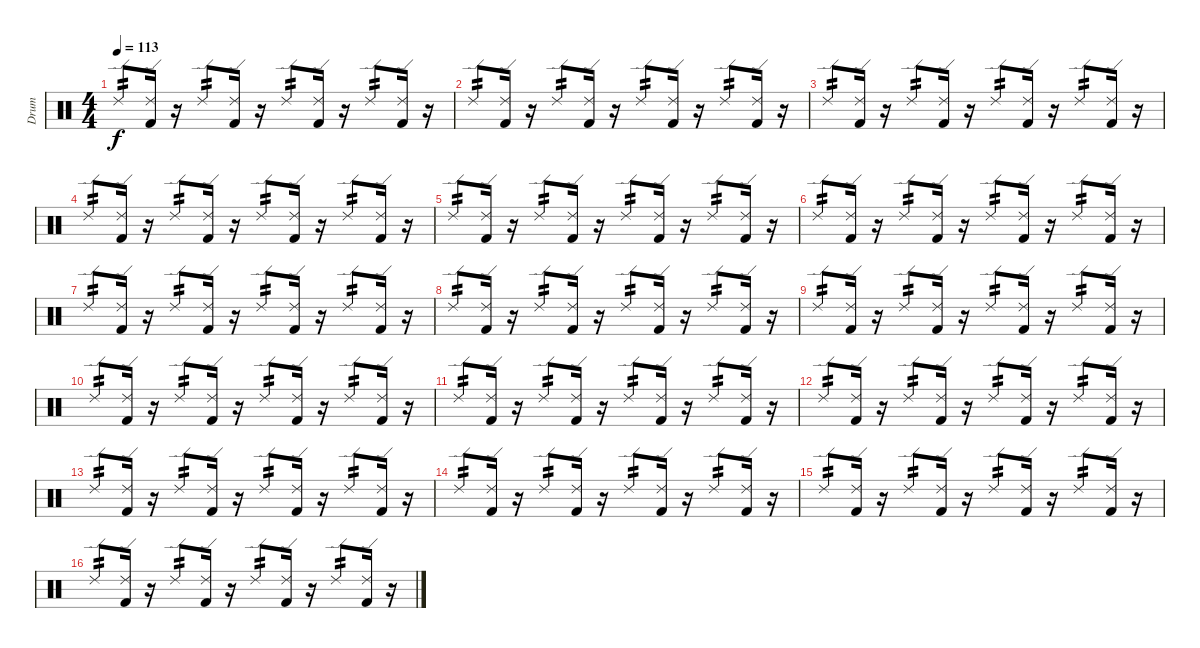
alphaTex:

\track ("Drum" "Drum") {instrument percussion}
\staff {score}
\articulation defaults
\ts (4 4)
\tempo 113
\clef neutral
\ks c "Ride (edge) 2".8{tp 2 dy f}
("Ride (edge) 2" "Kick (hit) 2").16 r.16 "Ride (edge) 2".8{tp 2} ("Ride (edge) 2" "Kick (hit) 2").16 r.16 "Ride (edge) 2".8{tp 2} ("Ride (edge) 2" "Kick (hit) 2").16 r.16 "Ride (edge) 2".8{tp 2} ("Ride (edge) 2" "Kick (hit) 2").16 r.16 |
"Ride (edge) 2".8{tp 2} ("Ride (edge) 2" "Kick (hit) 2").16 r.16 "Ride (edge) 2".8{tp 2} ("Ride (edge) 2" "Kick (hit) 2").16 r.16 "Ride (edge) 2".8{tp 2} ("Ride (edge) 2" "Kick (hit) 2").16 r.16 "Ride (edge) 2".8{tp 2} ("Ride (edge) 2" "Kick (hit) 2").16 r.16 |
"Ride (edge) 2".8{tp 2} ("Ride (edge) 2" "Kick (hit) 2").16 r.16 "Ride (edge) 2".8{tp 2} ("Ride (edge) 2" "Kick (hit) 2").16 r.16 "Ride (edge) 2".8{tp 2} ("Ride (edge) 2" "Kick (hit) 2").16 r.16 "Ride (edge) 2".8{tp 2} ("Ride (edge) 2" "Kick (hit) 2").16 r.16 |
"Ride (edge) 2".8{tp 2} ("Ride (edge) 2" "Kick (hit) 2").16 r.16 "Ride (edge) 2".8{tp 2} ("Ride (edge) 2" "Kick (hit) 2").16 r.16 "Ride (edge) 2".8{tp 2} ("Ride (edge) 2" "Kick (hit) 2").16 r.16 "Ride (edge) 2".8{tp 2} ("Ride (edge) 2" "Kick (hit) 2").16 r.16 |
"Ride (edge) 2".8{tp 2} ("Ride (edge) 2" "Kick (hit) 2").16 r.16 "Ride (edge) 2".8{tp 2} ("Ride (edge) 2" "Kick (hit) 2").16 r.16 "Ride (edge) 2".8{tp 2} ("Ride (edge) 2" "Kick (hit) 2").16 r.16 "Ride (edge) 2".8{tp 2} ("Ride (edge) 2" "Kick (hit) 2").16 r.16 |
"Ride (edge) 2".8{tp 2} ("Ride (edge) 2" "Kick (hit) 2").16 r.16 "Ride (edge) 2".8{tp 2} ("Ride (edge) 2" "Kick (hit) 2").16 r.16 "Ride (edge) 2".8{tp 2} ("Ride (edge) 2" "Kick (hit) 2").16 r.16 "Ride (edge) 2".8{tp 2} ("Ride (edge) 2" "Kick (hit) 2").16 r.16 |
"Ride (edge) 2".8{tp 2} ("Ride (edge) 2" "Kick (hit) 2").16 r.16 "Ride (edge) 2".8{tp 2} ("Ride (edge) 2" "Kick (hit) 2").16 r.16 "Ride (edge) 2".8{tp 2} ("Ride (edge) 2" "Kick (hit) 2").16 r.16 "Ride (edge) 2".8{tp 2} ("Ride (edge) 2" "Kick (hit) 2").16 r.16 |
"Ride (edge) 2".8{tp 2} ("Ride (edge) 2" "Kick (hit) 2").16 r.16 "Ride (edge) 2".8{tp 2} ("Ride (edge) 2" "Kick (hit) 2").16 r.16 "Ride (edge) 2".8{tp 2} ("Ride (edge) 2" "Kick (hit) 2").16 r.16 "Ride (edge) 2".8{tp 2} ("Ride (edge) 2" "Kick (hit) 2").16 r.16 |
"Ride (edge) 2".8{tp 2} ("Ride (edge) 2" "Kick (hit) 2").16 r.16 "Ride (edge) 2".8{tp 2} ("Ride (edge) 2" "Kick (hit) 2").16 r.16 "Ride (edge) 2".8{tp 2} ("Ride (edge) 2" "Kick (hit) 2").16 r.16 "Ride (edge) 2".8{tp 2} ("Ride (edge) 2" "Kick (hit) 2").16 r.16 |
"Ride (edge) 2".8{tp 2} ("Ride (edge) 2" "Kick (hit) 2").16 r.16 "Ride (edge) 2".8{tp 2} ("Ride (edge) 2" "Kick (hit) 2").16 r.16 "Ride (edge) 2".8{tp 2} ("Ride (edge) 2" "Kick (hit) 2").16 r.16 "Ride (edge) 2".8{tp 2} ("Ride (edge) 2" "Kick (hit) 2").16 r.16 |
"Ride (edge) 2".8{tp 2} ("Ride (edge) 2" "Kick (hit) 2").16 r.16 "Ride (edge) 2".8{tp 2} ("Ride (edge) 2" "Kick (hit) 2").16 r.16 "Ride (edge) 2".8{tp 2} ("Ride (edge) 2" "Kick (hit) 2").16 r.16 "Ride (edge) 2".8{tp 2} ("Ride (edge) 2" "Kick (hit) 2").16 r.16 |
"Ride (edge) 2".8{tp 2} ("Ride (edge) 2" "Kick (hit) 2").16 r.16 "Ride (edge) 2".8{tp 2} ("Ride (edge) 2" "Kick (hit) 2").16 r.16 "Ride (edge) 2".8{tp 2} ("Ride (edge) 2" "Kick (hit) 2").16 r.16 "Ride (edge) 2".8{tp 2} ("Ride (edge) 2" "Kick (hit) 2").16 r.16 |
"Ride (edge) 2".8{tp 2} ("Ride (edge) 2" "Kick (hit) 2").16 r.16 "Ride (edge) 2".8{tp 2} ("Ride (edge) 2" "Kick (hit) 2").16 r.16 "Ride (edge) 2".8{tp 2} ("Ride (edge) 2" "Kick (hit) 2").16 r.16 "Ride (edge) 2".8{tp 2} ("Ride (edge) 2" "Kick (hit) 2").16 r.16 |
"Ride (edge) 2".8{tp 2} ("Ride (edge) 2" "Kick (hit) 2").16 r.16 "Ride (edge) 2".8{tp 2} ("Ride (edge) 2" "Kick (hit) 2").16 r.16 "Ride (edge) 2".8{tp 2} ("Ride (edge) 2" "Kick (hit) 2").16 r.16 "Ride (edge) 2".8{tp 2} ("Ride (edge) 2" "Kick (hit) 2").16 r.16 |
"Ride (edge) 2".8{tp 2} ("Ride (edge) 2" "Kick (hit) 2").16 r.16 "Ride (edge) 2".8{tp 2} ("Ride (edge) 2" "Kick (hit) 2").16 r.16 "Ride (edge) 2".8{tp 2} ("Ride (edge) 2" "Kick (hit) 2").16 r.16 "Ride (edge) 2".8{tp 2} ("Ride (edge) 2" "Kick (hit) 2").16 r.16 |
"Ride (edge) 2".8{tp 2} ("Ride (edge) 2" "Kick (hit) 2").16 r.16 "Ride (edge) 2".8{tp 2} ("Ride (edge) 2" "Kick (hit) 2").16 r.16 "Ride (edge) 2".8{tp 2} ("Ride (edge) 2" "Kick (hit) 2").16 r.16 "Ride (edge) 2".8{tp 2} ("Ride (edge) 2" "Kick (hit) 2").16 r.16
